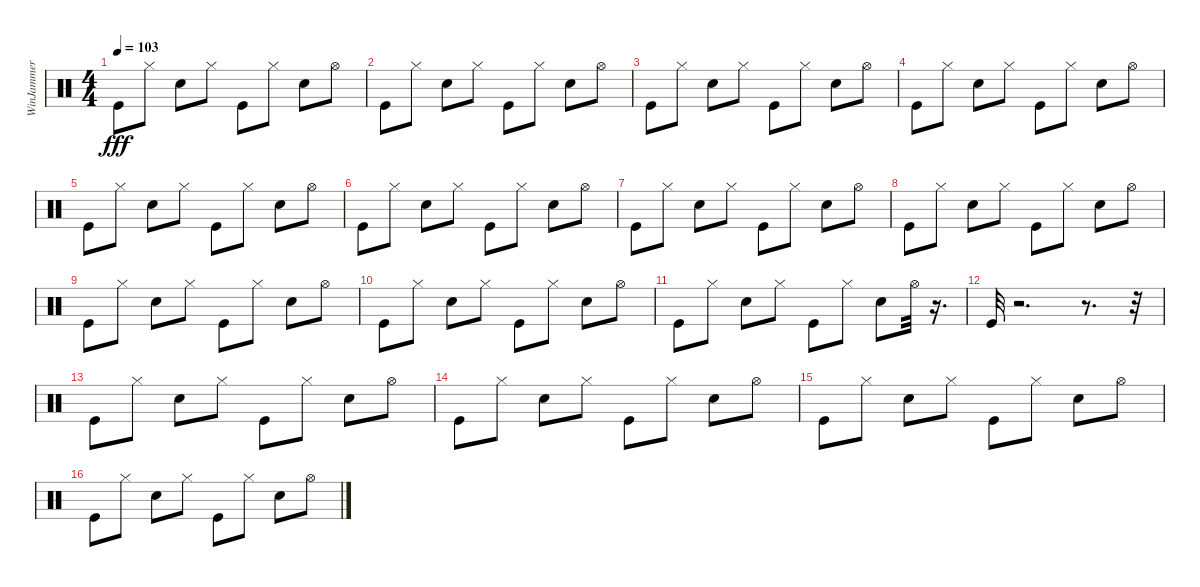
\track ("WinJammer Demo" "WinJammer ") {instrument percussion}
\staff {score}
\articulation defaults
\ts (4 4)
\tempo 103
\clef neutral
\ks c "Kick (hit)".8{dy fff} "Hi-Hat (closed)".8 "Snare (hit) 2".8 "Hi-Hat (closed)".8 "Kick (hit)".8 "Hi-Hat (closed)".8 "Snare (hit) 2".8 "Hi-Hat (open)".8
|
"Kick (hit)".8 "Hi-Hat (closed)".8 "Snare (hit) 2".8 "Hi-Hat (closed)".8 "Kick (hit)".8 "Hi-Hat (closed)".8 "Snare (hit) 2".8 "Hi-Hat (open)".8 |
"Kick (hit)".8 "Hi-Hat (closed)".8 "Snare (hit) 2".8 "Hi-Hat (closed)".8 "Kick (hit)".8 "Hi-Hat (closed)".8 "Snare (hit) 2".8 "Hi-Hat (open)".8 |
"Kick (hit)".8 "Hi-Hat (closed)".8 "Snare (hit) 2".8 "Hi-Hat (closed)".8 "Kick (hit)".8 "Hi-Hat (closed)".8 "Snare (hit) 2".8 "Hi-Hat (open)".8 |
"Kick (hit)".8 "Hi-Hat (closed)".8 "Snare (hit) 2".8 "Hi-Hat (closed)".8 "Kick (hit)".8 "Hi-Hat (closed)".8 "Snare (hit) 2".8 "Hi-Hat (open)".8 |
"Kick (hit)".8 "Hi-Hat (closed)".8 "Snare (hit) 2".8 "Hi-Hat (closed)".8 "Kick (hit)".8 "Hi-Hat (closed)".8 "Snare (hit) 2".8 "Hi-Hat (open)".8 |
"Kick (hit)".8 "Hi-Hat (closed)".8 "Snare (hit) 2".8 "Hi-Hat (closed)".8 "Kick (hit)".8 "Hi-Hat (closed)".8 "Snare (hit) 2".8 "Hi-Hat (open)".8 |
"Kick (hit)".8 "Hi-Hat (closed)".8 "Snare (hit) 2".8 "Hi-Hat (closed)".8 "Kick (hit)".8 "Hi-Hat (closed)".8 "Snare (hit) 2".8 "Hi-Hat (open)".8 |
"Kick (hit)".8 "Hi-Hat (closed)".8 "Snare (hit) 2".8 "Hi-Hat (closed)".8 "Kick (hit)".8 "Hi-Hat (closed)".8 "Snare (hit) 2".8 "Hi-Hat (open)".8 |
"Kick (hit)".8 "Hi-Hat (closed)".8 "Snare (hit) 2".8 "Hi-Hat (closed)".8 "Kick (hit)".8 "Hi-Hat (closed)".8 "Snare (hit) 2".8 "Hi-Hat (open)".8 |
"Kick (hit)".8 "Hi-Hat (closed)".8 "Snare (hit) 2".8 "Hi-Hat (closed)".8 "Kick (hit)".8 "Hi-Hat (closed)".8 "Snare (hit) 2".8 "Hi-Hat (open)".32 r.16{d} |
"Kick (hit)".32 r.2{d} r.8{d} r.32 |
"Kick (hit)".8 "Hi-Hat (closed)".8 "Snare (hit) 2".8 "Hi-Hat (closed)".8 "Kick (hit)".8 "Hi-Hat (closed)".8 "Snare (hit) 2".8 "Hi-Hat (open)".8 |
"Kick (hit)".8 "Hi-Hat (closed)".8 "Snare (hit) 2".8 "Hi-Hat (closed)".8 "Kick (hit)".8 "Hi-Hat (closed)".8 "Snare (hit) 2".8 "Hi-Hat (open)".8 |
"Kick (hit)".8 "Hi-Hat (closed)".8 "Snare (hit) 2".8 "Hi-Hat (closed)".8 "Kick (hit)".8 "Hi-Hat (closed)".8 "Snare (hit) 2".8 "Hi-Hat (open)".8 |
"Kick (hit)".8 "Hi-Hat (closed)".8 "Snare (hit) 2".8 "Hi-Hat (closed)".8 "Kick (hit)".8 "Hi-Hat (closed)".8 "Snare (hit) 2".8 "Hi-Hat (open)".8
